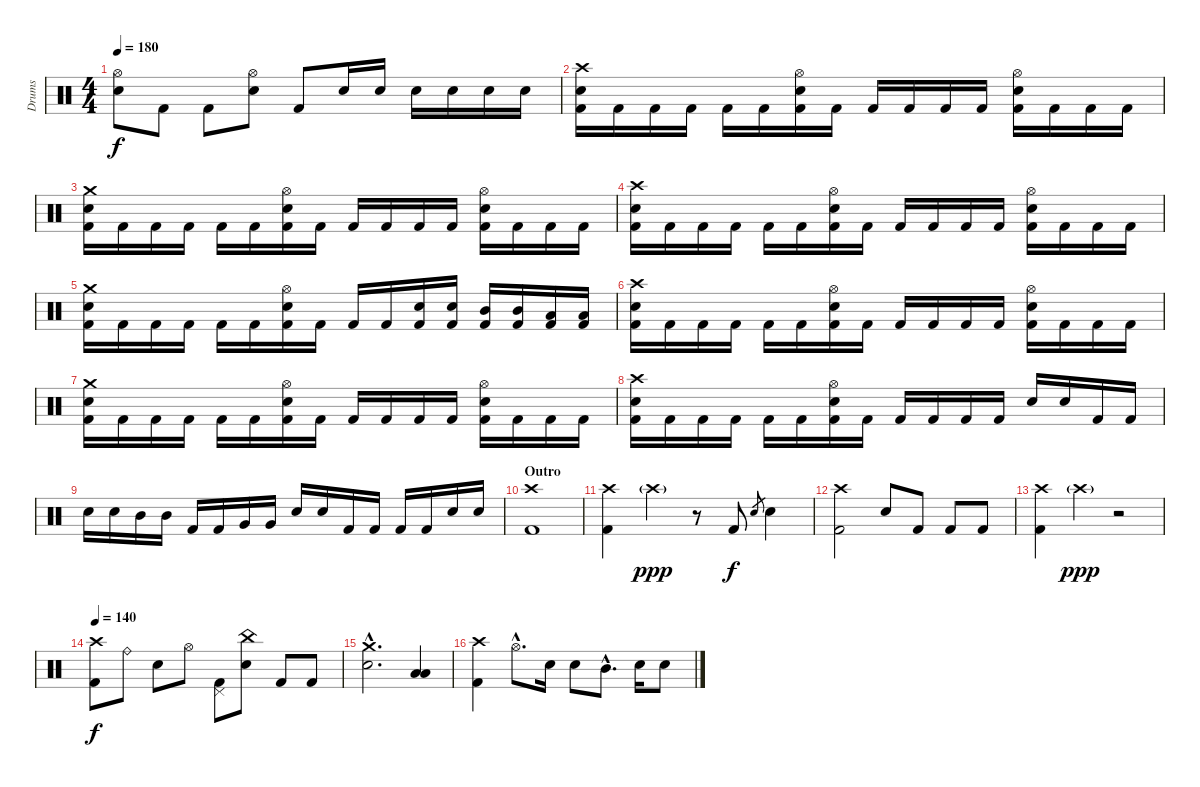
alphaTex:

\track ("Drums" "Drums") {instrument percussion}
\staff {score}
\articulation defaults
\ts (4 4)
\tempo 180
\clef neutral
\ks c
("Hi-Hat (open)" "Electric Snare (hit)").8{dy f} "Kick (hit) 2".8 "Kick (hit) 2".8 ("Hi-Hat (open)" "Electric Snare (hit)").8 "Kick (hit) 2".8 "Electric Snare (hit)".16 "Electric Snare (hit)".16 "Electric Snare (hit)".16 "Electric Snare (hit)".16 "Electric Snare (hit)".16 "Electric Snare (hit)".16 |
("Crash high (hit)" "Electric Snare (hit)" "Kick (hit) 2").16 "Kick (hit) 2".16 "Kick (hit) 2".16 "Kick (hit) 2".16 "Kick (hit) 2".16 "Kick (hit) 2".16 ("Hi-Hat (open)" "Electric Snare (hit)" "Kick (hit) 2").16 "Kick (hit) 2".16 "Kick (hit) 2".16 "Kick (hit) 2".16 "Kick (hit) 2".16 "Kick (hit) 2".16 ("Hi-Hat (open)" "Electric Snare (hit)" "Kick (hit) 2").16 "Kick (hit) 2".16 "Kick (hit) 2".16 "Kick (hit) 2".16 |
("Crash medium (hit)" "Electric Snare (hit)" "Kick (hit) 2").16 "Kick (hit) 2".16 "Kick (hit) 2".16 "Kick (hit) 2".16 "Kick (hit) 2".16 "Kick (hit) 2".16 ("Hi-Hat (open)" "Electric Snare (hit)" "Kick (hit) 2").16 "Kick (hit) 2".16 "Kick (hit) 2".16 "Kick (hit) 2".16 "Kick (hit) 2".16 "Kick (hit) 2".16 ("Hi-Hat (open)" "Electric Snare (hit)" "Kick (hit) 2").16 "Kick (hit) 2".16 "Kick (hit) 2".16 "Kick (hit) 2".16 |
("Crash high (hit)" "Electric Snare (hit)" "Kick (hit) 2").16 "Kick (hit) 2".16 "Kick (hit) 2".16 "Kick (hit) 2".16 "Kick (hit) 2".16 "Kick (hit) 2".16 ("Hi-Hat (open)" "Electric Snare (hit)" "Kick (hit) 2").16 "Kick (hit) 2".16 "Kick (hit) 2".16 "Kick (hit) 2".16 "Kick (hit) 2".16 "Kick (hit) 2".16 ("Hi-Hat (open)" "Electric Snare (hit)" "Kick (hit) 2").16 "Kick (hit) 2".16 "Kick (hit) 2".16 "Kick (hit) 2".16 |
("Crash medium (hit)" "Electric Snare (hit)" "Kick (hit) 2").16 "Kick (hit) 2".16 "Kick (hit) 2".16 "Kick (hit) 2".16 "Kick (hit) 2".16 "Kick (hit) 2".16 ("Hi-Hat (open)" "Electric Snare (hit)" "Kick (hit) 2").16 "Kick (hit) 2".16 "Kick (hit) 2".16 "Kick (hit) 2".16 ("Electric Snare (hit)" "Kick (hit) 2").16 ("Electric Snare (hit)" "Kick (hit) 2").16 ("Mid Tom (hit)" "Kick (hit) 2").16 ("Mid Tom (hit)" "Kick (hit) 2").16 ("Low Tom (hit)" "Kick (hit) 2").16 ("Low Tom (hit)" "Kick (hit) 2").16 |
("Crash high (hit)" "Electric Snare (hit)" "Kick (hit) 2").16 "Kick (hit) 2".16 "Kick (hit) 2".16 "Kick (hit) 2".16 "Kick (hit) 2".16 "Kick (hit) 2".16 ("Hi-Hat (open)" "Electric Snare (hit)" "Kick (hit) 2").16 "Kick (hit) 2".16 "Kick (hit) 2".16 "Kick (hit) 2".16 "Kick (hit) 2".16 "Kick (hit) 2".16 ("Hi-Hat (open)" "Electric Snare (hit)" "Kick (hit) 2").16 "Kick (hit) 2".16 "Kick (hit) 2".16 "Kick (hit) 2".16 |
("Crash medium (hit)" "Electric Snare (hit)" "Kick (hit) 2").16 "Kick (hit) 2".16 "Kick (hit) 2".16 "Kick (hit) 2".16 "Kick (hit) 2".16 "Kick (hit) 2".16 ("Hi-Hat (open)" "Electric Snare (hit)" "Kick (hit) 2").16 "Kick (hit) 2".16 "Kick (hit) 2".16 "Kick (hit) 2".16 "Kick (hit) 2".16 "Kick (hit) 2".16 ("Hi-Hat (open)" "Electric Snare (hit)" "Kick (hit) 2").16 "Kick (hit) 2".16 "Kick (hit) 2".16 "Kick (hit) 2".16 |
("Crash high (hit)" "Electric Snare (hit)" "Kick (hit) 2").16 "Kick (hit) 2".16 "Kick (hit) 2".16 "Kick (hit) 2".16 "Kick (hit) 2".16 "Kick (hit) 2".16 ("Hi-Hat (open)" "Electric Snare (hit)" "Kick (hit) 2").16 "Kick (hit) 2".16 "Kick (hit) 2".16 "Kick (hit) 2".16 "Kick (hit) 2".16 "Kick (hit) 2".16 "Electric Snare (hit)".16 "Electric Snare (hit)".16 "Kick (hit) 2".16 "Kick (hit) 2".16 |
"Electric Snare (hit)".16 "Electric Snare (hit)".16 "Mid Tom (hit)".16 "Mid Tom (hit)".16 "Kick (hit) 2".16 "Kick (hit) 2".16 "Very Low Tom (hit)".16 "Very Low Tom (hit)".16 "Electric Snare (hit)".16 "Electric Snare (hit)".16 "Kick (hit) 2".16 "Kick (hit) 2".16 "Kick (hit) 2".16 "Kick (hit) 2".16 "Electric Snare (hit)".16 "Electric Snare (hit)".16 |
\section ("" "Outro")
("Crash high (hit)" "Kick (hit) 2").1 |
("Crash high (hit)" "Kick (hit) 2").4 "Crash high (hit)"{g}.4{dy ppp} r.8 "Kick (hit) 2".8{dy f} "Electric Snare (hit)".8{gr} "Electric Snare (hit)".4 |
("Crash high (hit)" "Kick (hit) 2").2 "Electric Snare (hit)".8 "Kick (hit) 2".8 "Kick (hit) 2".8 "Kick (hit) 2".8 |
("Crash high (hit)" "Kick (hit) 2").4 "Crash high (hit)"{g}.4{dy ppp} r.2 |
\tempo 140
("Crash high (hit)" "Kick (hit) 2").8{dy f} "Ride (bell)".8 "Electric Snare (hit)".8 "Hi-Hat (open)".8 ("Kick (hit) 2" "Pedal Hi-Hat (hit)").8 ("China (hit)" "Electric Snare (hit)").8 "Kick (hit) 2".8 "Kick (hit) 2".8 |
("Crash medium (hit)"{hac} "Electric Snare (hit)"{hac}).2{d} ("Low Tom (hit)" "Low Floor Tom (hit)").4 |
("Crash high (hit)" "Kick (hit) 2").4 "Hi-Hat (open)"{hac}.8{d} "Electric Snare (hit)".16 "Electric Snare (hit)".8 "Mid Tom (hit)"{hac}.8{d} "Electric Snare (hit)".16 "Electric Snare (hit)".8
